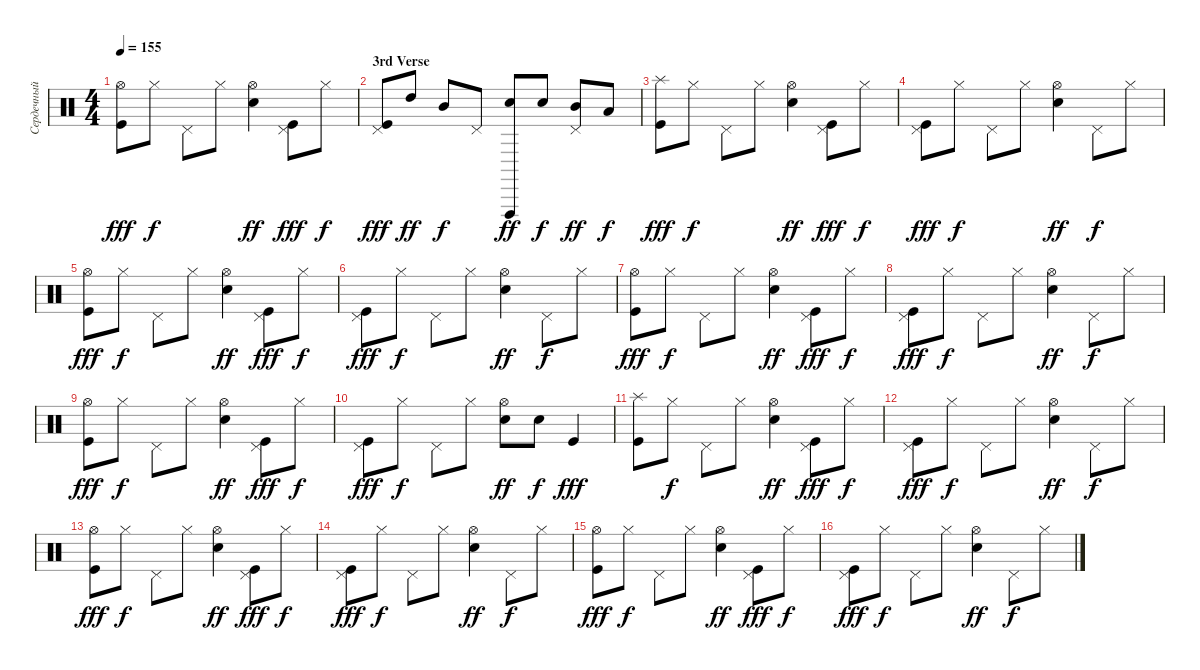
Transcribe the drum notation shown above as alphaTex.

\track ("Сердечный (Ударные)" "Сердечный ") {instrument percussion}
\staff {score}
\articulation defaults
\ts (4 4)
\tempo 155
\clef neutral
\ks c
("Hi-Hat (open)" "Kick (hit)").8{dy fff} "Hi-Hat (closed)".8{dy f} "Pedal Hi-Hat (hit)".8 "Hi-Hat (closed)".8 ("Hi-Hat (open)" "Electric Snare (hit)").4{dy ff} ("Kick (hit)" "Pedal Hi-Hat (hit)").8{dy fff} "Hi-Hat (closed)".8{dy f} |
\section ("" "3rd Verse")
("Kick (hit)" "Pedal Hi-Hat (hit)").8{dy fff} "High Tom (hit)".8{dy ff} "Mid Tom (hit)".8{dy f} "Pedal Hi-Hat (hit)".8 ("Vibraslap (hit)" "Electric Snare (hit)").8{dy ff} "Electric Snare (hit)".8{dy f} ("Mid Tom (hit)" "Pedal Hi-Hat (hit)").8{dy ff} "Low Tom (hit)".8{dy f} |
("Splash (hit)" "Kick (hit)").8{dy fff} "Hi-Hat (closed)".8{dy f} "Pedal Hi-Hat (hit)".8 "Hi-Hat (closed)".8 ("Hi-Hat (open)" "Electric Snare (hit)").4{dy ff} ("Kick (hit)" "Pedal Hi-Hat (hit)").8{dy fff} "Hi-Hat (closed)".8{dy f} |
("Kick (hit)" "Pedal Hi-Hat (hit)").8{dy fff} "Hi-Hat (closed)".8{dy f} "Pedal Hi-Hat (hit)".8 "Hi-Hat (closed)".8 ("Hi-Hat (open)" "Electric Snare (hit)").4{dy ff} "Pedal Hi-Hat (hit)".8{dy f} "Hi-Hat (closed)".8 |
("Hi-Hat (open)" "Kick (hit)").8{dy fff} "Hi-Hat (closed)".8{dy f} "Pedal Hi-Hat (hit)".8 "Hi-Hat (closed)".8 ("Hi-Hat (open)" "Electric Snare (hit)").4{dy ff} ("Kick (hit)" "Pedal Hi-Hat (hit)").8{dy fff} "Hi-Hat (closed)".8{dy f} |
("Kick (hit)" "Pedal Hi-Hat (hit)").8{dy fff} "Hi-Hat (closed)".8{dy f} "Pedal Hi-Hat (hit)".8 "Hi-Hat (closed)".8 ("Hi-Hat (open)" "Electric Snare (hit)").4{dy ff} "Pedal Hi-Hat (hit)".8{dy f} "Hi-Hat (closed)".8 |
("Hi-Hat (open)" "Kick (hit)").8{dy fff} "Hi-Hat (closed)".8{dy f} "Pedal Hi-Hat (hit)".8 "Hi-Hat (closed)".8 ("Hi-Hat (open)" "Electric Snare (hit)").4{dy ff} ("Kick (hit)" "Pedal Hi-Hat (hit)").8{dy fff} "Hi-Hat (closed)".8{dy f} |
("Kick (hit)" "Pedal Hi-Hat (hit)").8{dy fff} "Hi-Hat (closed)".8{dy f} "Pedal Hi-Hat (hit)".8 "Hi-Hat (closed)".8 ("Hi-Hat (open)" "Electric Snare (hit)").4{dy ff} "Pedal Hi-Hat (hit)".8{dy f} "Hi-Hat (closed)".8 |
("Hi-Hat (open)" "Kick (hit)").8{dy fff} "Hi-Hat (closed)".8{dy f} "Pedal Hi-Hat (hit)".8 "Hi-Hat (closed)".8 ("Hi-Hat (open)" "Electric Snare (hit)").4{dy ff} ("Kick (hit)" "Pedal Hi-Hat (hit)").8{dy fff} "Hi-Hat (closed)".8{dy f} |
("Kick (hit)" "Pedal Hi-Hat (hit)").8{dy fff} "Hi-Hat (closed)".8{dy f} "Pedal Hi-Hat (hit)".8 "Hi-Hat (closed)".8 ("Hi-Hat (open)" "Electric Snare (hit)").8{dy ff} "Electric Snare (hit)".8{dy f} "Kick (hit)".4{dy fff} |
("Splash (hit)" "Kick (hit)").8 "Hi-Hat (closed)".8{dy f} "Pedal Hi-Hat (hit)".8 "Hi-Hat (closed)".8 ("Hi-Hat (open)" "Electric Snare (hit)").4{dy ff} ("Kick (hit)" "Pedal Hi-Hat (hit)").8{dy fff} "Hi-Hat (closed)".8{dy f} |
("Kick (hit)" "Pedal Hi-Hat (hit)").8{dy fff} "Hi-Hat (closed)".8{dy f} "Pedal Hi-Hat (hit)".8 "Hi-Hat (closed)".8 ("Hi-Hat (open)" "Electric Snare (hit)").4{dy ff} "Pedal Hi-Hat (hit)".8{dy f} "Hi-Hat (closed)".8 |
("Hi-Hat (open)" "Kick (hit)").8{dy fff} "Hi-Hat (closed)".8{dy f} "Pedal Hi-Hat (hit)".8 "Hi-Hat (closed)".8 ("Hi-Hat (open)" "Electric Snare (hit)").4{dy ff} ("Kick (hit)" "Pedal Hi-Hat (hit)").8{dy fff} "Hi-Hat (closed)".8{dy f} |
("Kick (hit)" "Pedal Hi-Hat (hit)").8{dy fff} "Hi-Hat (closed)".8{dy f} "Pedal Hi-Hat (hit)".8 "Hi-Hat (closed)".8 ("Hi-Hat (open)" "Electric Snare (hit)").4{dy ff} "Pedal Hi-Hat (hit)".8{dy f} "Hi-Hat (closed)".8 |
("Hi-Hat (open)" "Kick (hit)").8{dy fff} "Hi-Hat (closed)".8{dy f} "Pedal Hi-Hat (hit)".8 "Hi-Hat (closed)".8 ("Hi-Hat (open)" "Electric Snare (hit)").4{dy ff} ("Kick (hit)" "Pedal Hi-Hat (hit)").8{dy fff} "Hi-Hat (closed)".8{dy f} |
("Kick (hit)" "Pedal Hi-Hat (hit)").8{dy fff} "Hi-Hat (closed)".8{dy f} "Pedal Hi-Hat (hit)".8 "Hi-Hat (closed)".8 ("Hi-Hat (open)" "Electric Snare (hit)").4{dy ff} "Pedal Hi-Hat (hit)".8{dy f} "Hi-Hat (closed)".8
